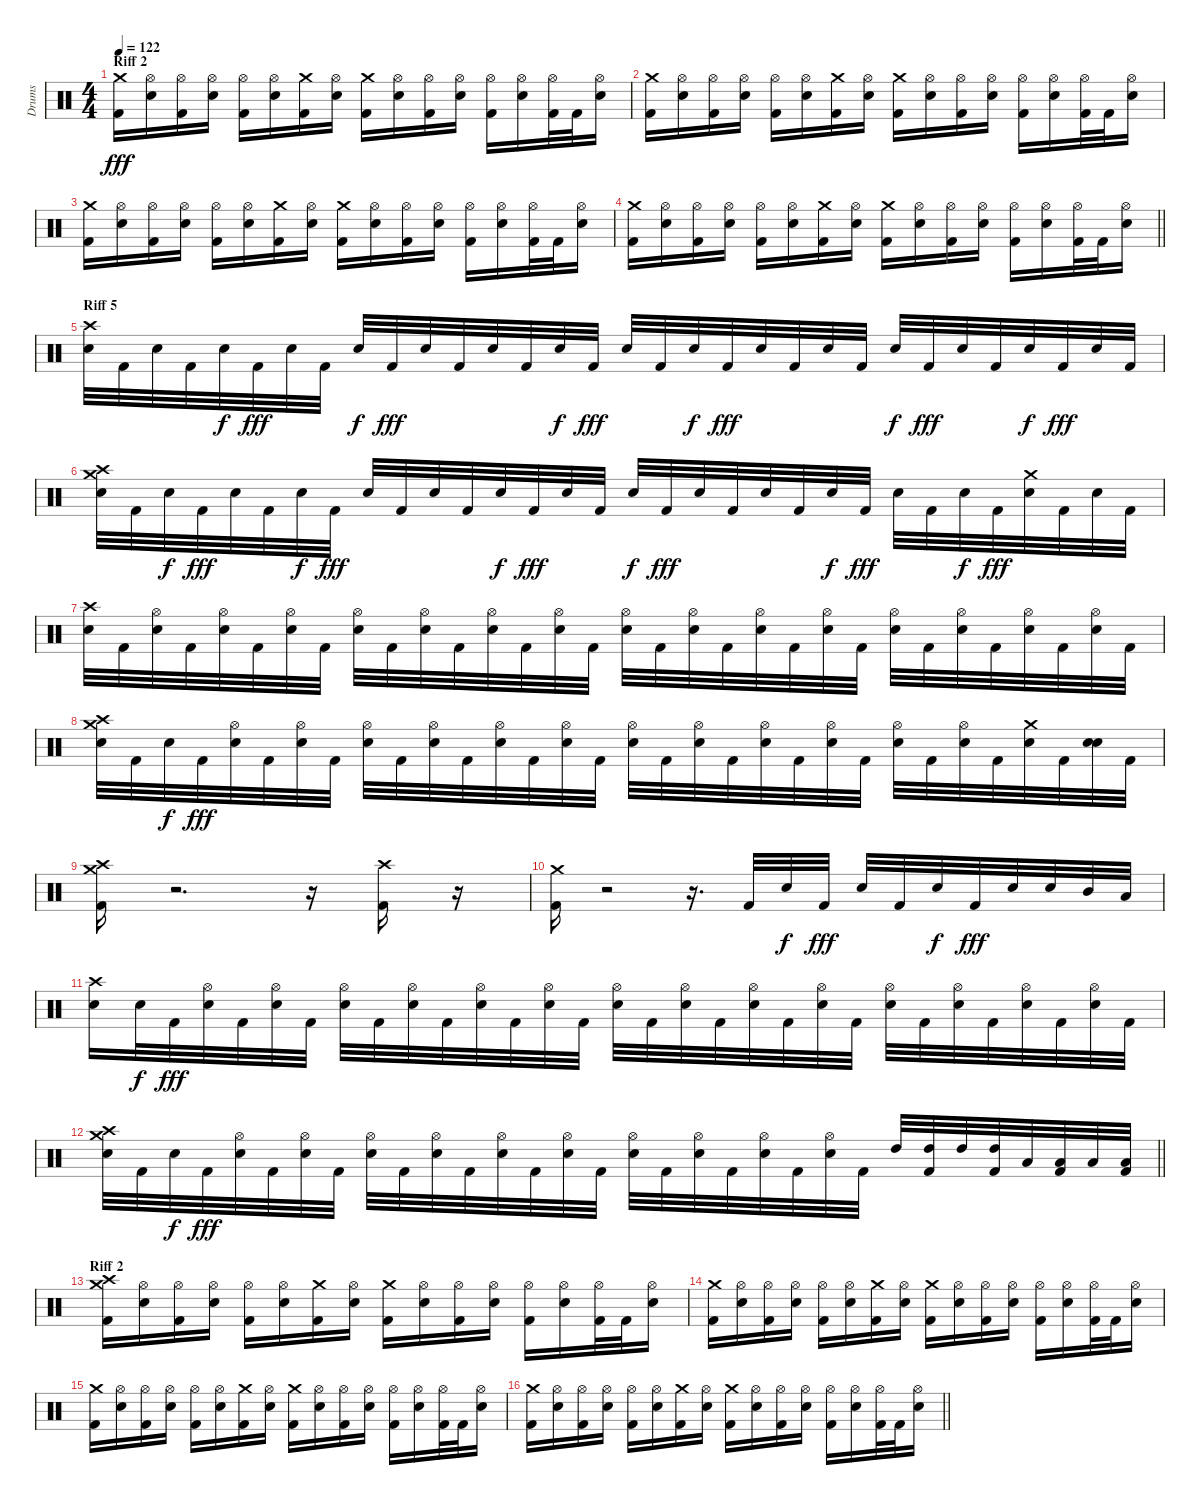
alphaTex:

\track ("Drums" "Drums") {instrument percussion}
\staff {score}
\articulation defaults
\ts (4 4)
\section ("" "Riff 2")
\tempo 122
\clef neutral
\ks c
("Kick (hit) 2" "Crash medium (hit)").16{dy fff} ("Snare (hit) 2" "Hi-Hat (open)").16 ("Kick (hit) 2" "Hi-Hat (open)").16 ("Snare (hit) 2" "Hi-Hat (open)").16 ("Kick (hit) 2" "Hi-Hat (open)").16 ("Snare (hit) 2" "Hi-Hat (open)").16 ("Kick (hit) 2" "Crash medium (hit)").16 ("Snare (hit) 2" "Hi-Hat (open)").16 ("Kick (hit) 2" "Crash medium (hit)").16 ("Snare (hit) 2" "Hi-Hat (open)").16 ("Kick (hit) 2" "Hi-Hat (open)").16 ("Snare (hit) 2" "Hi-Hat (open)").16 ("Kick (hit) 2" "Hi-Hat (open)").16 ("Snare (hit) 2" "Hi-Hat (open)").16 ("Kick (hit) 2" "Hi-Hat (open)").32 "Kick (hit) 2".32 ("Snare (hit) 2" "Hi-Hat (open)").16 |
("Kick (hit) 2" "Crash medium (hit)").16 ("Snare (hit) 2" "Hi-Hat (open)").16 ("Kick (hit) 2" "Hi-Hat (open)").16 ("Snare (hit) 2" "Hi-Hat (open)").16 ("Kick (hit) 2" "Hi-Hat (open)").16 ("Snare (hit) 2" "Hi-Hat (open)").16 ("Kick (hit) 2" "Crash medium (hit)").16 ("Snare (hit) 2" "Hi-Hat (open)").16 ("Kick (hit) 2" "Crash medium (hit)").16 ("Snare (hit) 2" "Hi-Hat (open)").16 ("Kick (hit) 2" "Hi-Hat (open)").16 ("Snare (hit) 2" "Hi-Hat (open)").16 ("Kick (hit) 2" "Hi-Hat (open)").16 ("Snare (hit) 2" "Hi-Hat (open)").16 ("Kick (hit) 2" "Hi-Hat (open)").32 "Kick (hit) 2".32 ("Snare (hit) 2" "Hi-Hat (open)").16 |
("Kick (hit) 2" "Crash medium (hit)").16 ("Snare (hit) 2" "Hi-Hat (open)").16 ("Kick (hit) 2" "Hi-Hat (open)").16 ("Snare (hit) 2" "Hi-Hat (open)").16 ("Kick (hit) 2" "Hi-Hat (open)").16 ("Snare (hit) 2" "Hi-Hat (open)").16 ("Kick (hit) 2" "Crash medium (hit)").16 ("Snare (hit) 2" "Hi-Hat (open)").16 ("Kick (hit) 2" "Crash medium (hit)").16 ("Snare (hit) 2" "Hi-Hat (open)").16 ("Kick (hit) 2" "Hi-Hat (open)").16 ("Snare (hit) 2" "Hi-Hat (open)").16 ("Kick (hit) 2" "Hi-Hat (open)").16 ("Snare (hit) 2" "Hi-Hat (open)").16 ("Kick (hit) 2" "Hi-Hat (open)").32 "Kick (hit) 2".32 ("Snare (hit) 2" "Hi-Hat (open)").16 |
\barLineRight lightlight
("Kick (hit) 2" "Crash medium (hit)").16 ("Snare (hit) 2" "Hi-Hat (open)").16 ("Kick (hit) 2" "Hi-Hat (open)").16 ("Snare (hit) 2" "Hi-Hat (open)").16 ("Kick (hit) 2" "Hi-Hat (open)").16 ("Snare (hit) 2" "Hi-Hat (open)").16 ("Kick (hit) 2" "Crash medium (hit)").16 ("Snare (hit) 2" "Hi-Hat (open)").16 ("Kick (hit) 2" "Crash medium (hit)").16 ("Snare (hit) 2" "Hi-Hat (open)").16 ("Kick (hit) 2" "Hi-Hat (open)").16 ("Snare (hit) 2" "Hi-Hat (open)").16 ("Kick (hit) 2" "Hi-Hat (open)").16 ("Snare (hit) 2" "Hi-Hat (open)").16 ("Kick (hit) 2" "Hi-Hat (open)").32 "Kick (hit) 2".32 ("Snare (hit) 2" "Hi-Hat (open)").16 |
\section ("" "Riff 5")
("Snare (hit) 2" "Crash high (hit)").32 "Kick (hit) 2".32 "Snare (hit) 2".32 "Kick (hit) 2".32 "Snare (hit) 2".32{dy f} "Kick (hit) 2".32{dy fff} "Snare (hit) 2".32 "Kick (hit) 2".32 "Snare (hit) 2".32{dy f} "Kick (hit) 2".32{dy fff} "Snare (hit) 2".32 "Kick (hit) 2".32 "Snare (hit) 2".32 "Kick (hit) 2".32 "Snare (hit) 2".32{dy f} "Kick (hit) 2".32{dy fff} "Snare (hit) 2".32 "Kick (hit) 2".32 "Snare (hit) 2".32{dy f} "Kick (hit) 2".32{dy fff} "Snare (hit) 2".32 "Kick (hit) 2".32 "Snare (hit) 2".32 "Kick (hit) 2".32 "Snare (hit) 2".32{dy f} "Kick (hit) 2".32{dy fff} "Snare (hit) 2".32 "Kick (hit) 2".32 "Snare (hit) 2".32{dy f} "Kick (hit) 2".32{dy fff} "Snare (hit) 2".32 "Kick (hit) 2".32 |
("Snare (hit) 2" "Crash high (hit)" "Crash medium (hit)").32 "Kick (hit) 2".32 "Snare (hit) 2".32{dy f} "Kick (hit) 2".32{dy fff} "Snare (hit) 2".32 "Kick (hit) 2".32 "Snare (hit) 2".32{dy f} "Kick (hit) 2".32{dy fff} "Snare (hit) 2".32 "Kick (hit) 2".32 "Snare (hit) 2".32 "Kick (hit) 2".32 "Snare (hit) 2".32{dy f} "Kick (hit) 2".32{dy fff} "Snare (hit) 2".32 "Kick (hit) 2".32 "Snare (hit) 2".32{dy f} "Kick (hit) 2".32{dy fff} "Snare (hit) 2".32 "Kick (hit) 2".32 "Snare (hit) 2".32 "Kick (hit) 2".32 "Snare (hit) 2".32{dy f} "Kick (hit) 2".32{dy fff} "Snare (hit) 2".32 "Kick (hit) 2".32 "Snare (hit) 2".32{dy f} "Kick (hit) 2".32{dy fff} ("Snare (hit) 2" "Crash medium (hit)").32 "Kick (hit) 2".32 "Snare (hit) 2".32 "Kick (hit) 2".32 |
("Snare (hit) 2" "Crash high (hit)").32 "Kick (hit) 2".32 ("Snare (hit) 2" "Hi-Hat (open)").32 "Kick (hit) 2".32 ("Hi-Hat (open)" "Snare (hit) 2").32 "Kick (hit) 2".32 ("Snare (hit) 2" "Hi-Hat (open)").32 "Kick (hit) 2".32 ("Hi-Hat (open)" "Snare (hit) 2").32 "Kick (hit) 2".32 ("Snare (hit) 2" "Hi-Hat (open)").32 "Kick (hit) 2".32 ("Snare (hit) 2" "Hi-Hat (open)").32 "Kick (hit) 2".32 ("Hi-Hat (open)" "Snare (hit) 2").32 "Kick (hit) 2".32 ("Snare (hit) 2" "Hi-Hat (open)").32 "Kick (hit) 2".32 ("Hi-Hat (open)" "Snare (hit) 2").32 "Kick (hit) 2".32 ("Snare (hit) 2" "Hi-Hat (open)").32 "Kick (hit) 2".32 ("Snare (hit) 2" "Hi-Hat (open)").32 "Kick (hit) 2".32 ("Hi-Hat (open)" "Snare (hit) 2").32 "Kick (hit) 2".32 ("Snare (hit) 2" "Hi-Hat (open)").32 "Kick (hit) 2".32 ("Hi-Hat (open)" "Snare (hit) 2").32 "Kick (hit) 2".32 ("Snare (hit) 2" "Hi-Hat (open)").32 "Kick (hit) 2".32 |
("Snare (hit) 2" "Crash high (hit)" "Crash medium (hit)").32 "Kick (hit) 2".32 "Snare (hit) 2".32{dy f} "Kick (hit) 2".32{dy fff} ("Snare (hit) 2" "Hi-Hat (open)").32 "Kick (hit) 2".32 ("Hi-Hat (open)" "Snare (hit) 2").32 "Kick (hit) 2".32 ("Snare (hit) 2" "Hi-Hat (open)").32 "Kick (hit) 2".32 ("Snare (hit) 2" "Hi-Hat (open)").32 "Kick (hit) 2".32 ("Hi-Hat (open)" "Snare (hit) 2").32 "Kick (hit) 2".32 ("Snare (hit) 2" "Hi-Hat (open)").32 "Kick (hit) 2".32 ("Hi-Hat (open)" "Snare (hit) 2").32 "Kick (hit) 2".32 ("Snare (hit) 2" "Hi-Hat (open)").32 "Kick (hit) 2".32 ("Snare (hit) 2" "Hi-Hat (open)").32 "Kick (hit) 2".32 ("Hi-Hat (open)" "Snare (hit) 2").32 "Kick (hit) 2".32 ("Snare (hit) 2" "Hi-Hat (open)").32 "Kick (hit) 2".32 ("Hi-Hat (open)" "Snare (hit) 2").32 "Kick (hit) 2".32 ("Snare (hit) 2" "Crash medium (hit)").32 "Kick (hit) 2".32 ("Snare (hit) 2" "Snare (hit) 2").32 "Kick (hit) 2".32 |
("Kick (hit) 2" "Crash high (hit)" "Crash medium (hit)").16 r.2{d} r.16 ("Kick (hit) 2" "Crash high (hit)").16 r.16 |
("Kick (hit) 2" "Crash medium (hit)").16 r.2 r.16{d} "Kick (hit) 2".32 "Snare (hit) 2".32{dy f} "Kick (hit) 2".32{dy fff} "Snare (hit) 2".32 "Kick (hit) 2".32 "Snare (hit) 2".32{dy f} "Kick (hit) 2".32{dy fff} "Snare (hit) 2".32 "Snare (hit) 2".32 "Mid Tom (hit)".32 "Low Tom (hit)".32 |
("Snare (hit) 2" "Crash high (hit)").16 "Snare (hit) 2".32{dy f} "Kick (hit) 2".32{dy fff} ("Hi-Hat (open)" "Snare (hit) 2").32 "Kick (hit) 2".32 ("Snare (hit) 2" "Hi-Hat (open)").32 "Kick (hit) 2".32 ("Hi-Hat (open)" "Snare (hit) 2").32 "Kick (hit) 2".32 ("Snare (hit) 2" "Hi-Hat (open)").32 "Kick (hit) 2".32 ("Snare (hit) 2" "Hi-Hat (open)").32 "Kick (hit) 2".32 ("Hi-Hat (open)" "Snare (hit) 2").32 "Kick (hit) 2".32 ("Snare (hit) 2" "Hi-Hat (open)").32 "Kick (hit) 2".32 ("Hi-Hat (open)" "Snare (hit) 2").32 "Kick (hit) 2".32 ("Snare (hit) 2" "Hi-Hat (open)").32 "Kick (hit) 2".32 ("Snare (hit) 2" "Hi-Hat (open)").32 "Kick (hit) 2".32 ("Hi-Hat (open)" "Snare (hit) 2").32 "Kick (hit) 2".32 ("Snare (hit) 2" "Hi-Hat (open)").32 "Kick (hit) 2".32 ("Hi-Hat (open)" "Snare (hit) 2").32 "Kick (hit) 2".32 ("Snare (hit) 2" "Hi-Hat (open)").32 "Kick (hit) 2".32 |
\barLineRight lightlight
("Snare (hit) 2" "Crash high (hit)" "Crash medium (hit)").32 "Kick (hit) 2".32 "Snare (hit) 2".32{dy f} "Kick (hit) 2".32{dy fff} ("Snare (hit) 2" "Hi-Hat (open)").32 "Kick (hit) 2".32 ("Hi-Hat (open)" "Snare (hit) 2").32 "Kick (hit) 2".32 ("Snare (hit) 2" "Hi-Hat (open)").32 "Kick (hit) 2".32 ("Snare (hit) 2" "Hi-Hat (open)").32 "Kick (hit) 2".32 ("Hi-Hat (open)" "Snare (hit) 2").32 "Kick (hit) 2".32 ("Snare (hit) 2" "Hi-Hat (open)").32 "Kick (hit) 2".32 ("Hi-Hat (open)" "Snare (hit) 2").32 "Kick (hit) 2".32 ("Snare (hit) 2" "Hi-Hat (open)").32 "Kick (hit) 2".32 ("Snare (hit) 2" "Hi-Hat (open)").32 "Kick (hit) 2".32 ("Hi-Hat (open)" "Snare (hit) 2").32 "Kick (hit) 2".32 "High Tom (hit)".32 ("Kick (hit) 2" "High Tom (hit)").32 "High Tom (hit)".32 ("Kick (hit) 2" "High Tom (hit)").32 "Low Tom (hit)".32 ("Kick (hit) 2" "Low Tom (hit)").32 "Low Tom (hit)".32 ("Kick (hit) 2" "Low Tom (hit)").32 |
\section ("" "Riff 2")
("Kick (hit) 2" "Crash high (hit)" "Crash medium (hit)").16 ("Snare (hit) 2" "Hi-Hat (open)").16 ("Kick (hit) 2" "Hi-Hat (open)").16 ("Snare (hit) 2" "Hi-Hat (open)").16 ("Kick (hit) 2" "Hi-Hat (open)").16 ("Snare (hit) 2" "Hi-Hat (open)").16 ("Kick (hit) 2" "Crash medium (hit)").16 ("Snare (hit) 2" "Hi-Hat (open)").16 ("Kick (hit) 2" "Crash medium (hit)").16 ("Snare (hit) 2" "Hi-Hat (open)").16 ("Kick (hit) 2" "Hi-Hat (open)").16 ("Snare (hit) 2" "Hi-Hat (open)").16 ("Kick (hit) 2" "Hi-Hat (open)").16 ("Snare (hit) 2" "Hi-Hat (open)").16 ("Kick (hit) 2" "Hi-Hat (open)").32 "Kick (hit) 2".32 ("Snare (hit) 2" "Hi-Hat (open)").16 |
("Kick (hit) 2" "Crash medium (hit)").16 ("Snare (hit) 2" "Hi-Hat (open)").16 ("Kick (hit) 2" "Hi-Hat (open)").16 ("Snare (hit) 2" "Hi-Hat (open)").16 ("Kick (hit) 2" "Hi-Hat (open)").16 ("Snare (hit) 2" "Hi-Hat (open)").16 ("Kick (hit) 2" "Crash medium (hit)").16 ("Snare (hit) 2" "Hi-Hat (open)").16 ("Kick (hit) 2" "Crash medium (hit)").16 ("Snare (hit) 2" "Hi-Hat (open)").16 ("Kick (hit) 2" "Hi-Hat (open)").16 ("Snare (hit) 2" "Hi-Hat (open)").16 ("Kick (hit) 2" "Hi-Hat (open)").16 ("Snare (hit) 2" "Hi-Hat (open)").16 ("Kick (hit) 2" "Hi-Hat (open)").32 "Kick (hit) 2".32 ("Snare (hit) 2" "Hi-Hat (open)").16 |
("Kick (hit) 2" "Crash medium (hit)").16 ("Snare (hit) 2" "Hi-Hat (open)").16 ("Kick (hit) 2" "Hi-Hat (open)").16 ("Snare (hit) 2" "Hi-Hat (open)").16 ("Kick (hit) 2" "Hi-Hat (open)").16 ("Snare (hit) 2" "Hi-Hat (open)").16 ("Kick (hit) 2" "Crash medium (hit)").16 ("Snare (hit) 2" "Hi-Hat (open)").16 ("Kick (hit) 2" "Crash medium (hit)").16 ("Snare (hit) 2" "Hi-Hat (open)").16 ("Kick (hit) 2" "Hi-Hat (open)").16 ("Snare (hit) 2" "Hi-Hat (open)").16 ("Kick (hit) 2" "Hi-Hat (open)").16 ("Snare (hit) 2" "Hi-Hat (open)").16 ("Kick (hit) 2" "Hi-Hat (open)").32 "Kick (hit) 2".32 ("Snare (hit) 2" "Hi-Hat (open)").16 |
\barLineRight lightlight
("Kick (hit) 2" "Crash medium (hit)").16 ("Snare (hit) 2" "Hi-Hat (open)").16 ("Kick (hit) 2" "Hi-Hat (open)").16 ("Snare (hit) 2" "Hi-Hat (open)").16 ("Kick (hit) 2" "Hi-Hat (open)").16 ("Snare (hit) 2" "Hi-Hat (open)").16 ("Kick (hit) 2" "Crash medium (hit)").16 ("Snare (hit) 2" "Hi-Hat (open)").16 ("Kick (hit) 2" "Crash medium (hit)").16 ("Snare (hit) 2" "Hi-Hat (open)").16 ("Kick (hit) 2" "Hi-Hat (open)").16 ("Snare (hit) 2" "Hi-Hat (open)").16 ("Kick (hit) 2" "Hi-Hat (open)").16 ("Snare (hit) 2" "Hi-Hat (open)").16 ("Kick (hit) 2" "Hi-Hat (open)").32 "Kick (hit) 2".32 ("Snare (hit) 2" "Hi-Hat (open)").16
